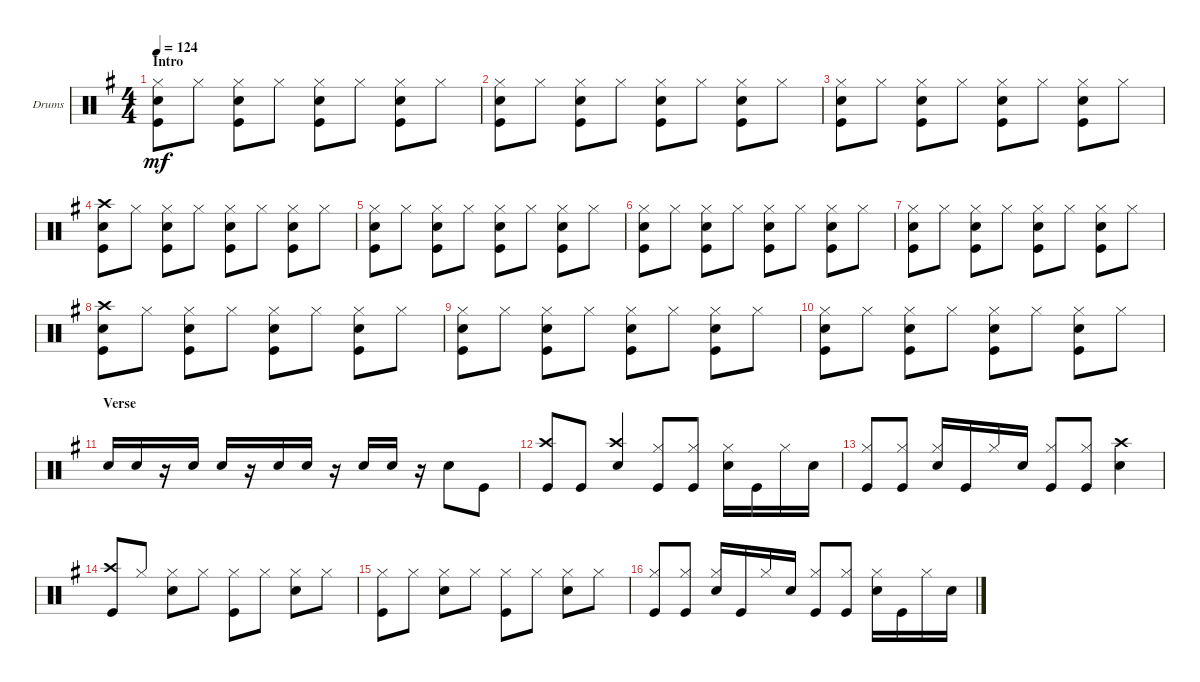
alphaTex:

\defaultSystemsLayout 4
\bracketExtendMode groupsimilarinstruments
\firstSystemTrackNameOrientation horizontal
\otherSystemsTrackNameOrientation horizontal
\track ("PETER CRISS" "Drums") {instrument percussion}
\staff {score}
\articulation defaults
\ts (4 4)
\section ("" "Intro")
\tempo 124
\clef neutral
\scale
0.502183
\ks g
("Kick (hit)" "Snare (hit) 2" "Hi-Hat (closed)").8{dy mf} "Hi-Hat (closed)".8 ("Hi-Hat (closed)" "Snare (hit) 2" "Kick (hit)").8 "Hi-Hat (closed)".8 ("Kick (hit)" "Snare (hit) 2" "Hi-Hat (closed)").8 "Hi-Hat (closed)".8 ("Hi-Hat (closed)" "Snare (hit) 2" "Kick (hit)").8 "Hi-Hat (closed)".8 |
\scale
0.248908 ("Hi-Hat (closed)" "Snare (hit) 2" "Kick (hit)").8 "Hi-Hat (closed)".8 ("Hi-Hat (closed)" "Snare (hit) 2" "Kick (hit)").8 "Hi-Hat (closed)".8 ("Hi-Hat (closed)" "Snare (hit) 2" "Kick (hit)").8 "Hi-Hat (closed)".8 ("Hi-Hat (closed)" "Snare (hit) 2" "Kick (hit)").8 "Hi-Hat (closed)".8 |
\scale
0.248908 ("Hi-Hat (closed)" "Snare (hit) 2" "Kick (hit)").8 "Hi-Hat (closed)".8 ("Hi-Hat (closed)" "Snare (hit) 2" "Kick (hit)").8 "Hi-Hat (closed)".8 ("Hi-Hat (closed)" "Snare (hit) 2" "Kick (hit)").8 "Hi-Hat (closed)".8 ("Hi-Hat (closed)" "Snare (hit) 2" "Kick (hit)").8 "Hi-Hat (closed)".8 |
\scale
0.333333 ("Snare (hit) 2" "Kick (hit)" "Crash high (hit)").8 "Hi-Hat (closed)".8 ("Hi-Hat (closed)" "Snare (hit) 2" "Kick (hit)").8 "Hi-Hat (closed)".8 ("Hi-Hat (closed)" "Snare (hit) 2" "Kick (hit)").8 "Hi-Hat (closed)".8 ("Hi-Hat (closed)" "Snare (hit) 2" "Kick (hit)").8 "Hi-Hat (closed)".8 |
\scale
0.333333 ("Kick (hit)" "Snare (hit) 2" "Hi-Hat (closed)").8 "Hi-Hat (closed)".8 ("Hi-Hat (closed)" "Snare (hit) 2" "Kick (hit)").8 "Hi-Hat (closed)".8 ("Kick (hit)" "Snare (hit) 2" "Hi-Hat (closed)").8 "Hi-Hat (closed)".8 ("Hi-Hat (closed)" "Snare (hit) 2" "Kick (hit)").8 "Hi-Hat (closed)".8 |
\scale
0.333333 ("Hi-Hat (closed)" "Snare (hit) 2" "Kick (hit)").8 "Hi-Hat (closed)".8 ("Hi-Hat (closed)" "Snare (hit) 2" "Kick (hit)").8 "Hi-Hat (closed)".8 ("Hi-Hat (closed)" "Snare (hit) 2" "Kick (hit)").8 "Hi-Hat (closed)".8 ("Hi-Hat (closed)" "Snare (hit) 2" "Kick (hit)").8 "Hi-Hat (closed)".8 |
\scale
0.333333 ("Hi-Hat (closed)" "Snare (hit) 2" "Kick (hit)").8 "Hi-Hat (closed)".8 ("Hi-Hat (closed)" "Snare (hit) 2" "Kick (hit)").8 "Hi-Hat (closed)".8 ("Hi-Hat (closed)" "Snare (hit) 2" "Kick (hit)").8 "Hi-Hat (closed)".8 ("Hi-Hat (closed)" "Snare (hit) 2" "Kick (hit)").8 "Hi-Hat (closed)".8 |
\scale
0.333333 ("Snare (hit) 2" "Kick (hit)" "Crash high (hit)").8 "Hi-Hat (closed)".8 ("Hi-Hat (closed)" "Snare (hit) 2" "Kick (hit)").8 "Hi-Hat (closed)".8 ("Hi-Hat (closed)" "Snare (hit) 2" "Kick (hit)").8 "Hi-Hat (closed)".8 ("Hi-Hat (closed)" "Snare (hit) 2" "Kick (hit)").8 "Hi-Hat (closed)".8 |
\scale
0.333333 ("Kick (hit)" "Snare (hit) 2" "Hi-Hat (closed)").8 "Hi-Hat (closed)".8 ("Hi-Hat (closed)" "Snare (hit) 2" "Kick (hit)").8 "Hi-Hat (closed)".8 ("Kick (hit)" "Snare (hit) 2" "Hi-Hat (closed)").8 "Hi-Hat (closed)".8 ("Hi-Hat (closed)" "Snare (hit) 2" "Kick (hit)").8 "Hi-Hat (closed)".8 |
\scale
0.333333 ("Hi-Hat (closed)" "Snare (hit) 2" "Kick (hit)").8 "Hi-Hat (closed)".8 ("Hi-Hat (closed)" "Snare (hit) 2" "Kick (hit)").8 "Hi-Hat (closed)".8 ("Hi-Hat (closed)" "Snare (hit) 2" "Kick (hit)").8 "Hi-Hat (closed)".8 ("Hi-Hat (closed)" "Snare (hit) 2" "Kick (hit)").8 "Hi-Hat (closed)".8 |
\section ("" "Verse")
\scale
0.333333 "Snare (hit) 2".16{beam invert} "Snare (hit) 2".16 r.16 "Snare (hit) 2".16 "Snare (hit) 2".16{beam invert} r.16 "Snare (hit) 2".16 "Snare (hit) 2".16 r.16 "Snare (hit) 2".16 "Snare (hit) 2".16 r.16 "Snare (hit) 2".8{beam invert} "Kick (hit)".8 |
\scale
0.333333 ("Crash high (hit)" "Kick (hit)").8{beam invert} "Kick (hit)".8 ("Snare (hit) 2" "Crash high (hit)").4 ("Hi-Hat (closed)" "Kick (hit)").8{beam invert} ("Kick (hit)" "Hi-Hat (closed)").8 ("Snare (hit) 2" "Hi-Hat (closed)").16 "Kick (hit)".16 "Hi-Hat (closed)".16 "Snare (hit) 2".16 |
\scale
0.333333 ("Hi-Hat (closed)" "Kick (hit)").8{beam invert} ("Kick (hit)" "Hi-Hat (closed)").8 ("Snare (hit) 2" "Hi-Hat (closed)").16 "Kick (hit)".16 "Hi-Hat (closed)".16 "Snare (hit) 2".16 ("Hi-Hat (closed)" "Kick (hit)").8{beam invert} ("Kick (hit)" "Hi-Hat (closed)").8 ("Snare (hit) 2" "Crash high (hit)").4 |
\scale
0.333333 ("Crash high (hit)" "Kick (hit)").8{beam invert} "Hi-Hat (closed)".8 ("Hi-Hat (closed)" "Snare (hit) 2").8 "Hi-Hat (closed)".8 ("Kick (hit)" "Hi-Hat (closed)").8 "Hi-Hat (closed)".8 ("Hi-Hat (closed)" "Snare (hit) 2").8 "Hi-Hat (closed)".8 |
\scale
0.333333 ("Kick (hit)" "Hi-Hat (closed)").8 "Hi-Hat (closed)".8 ("Hi-Hat (closed)" "Snare (hit) 2").8 "Hi-Hat (closed)".8 ("Kick (hit)" "Hi-Hat (closed)").8 "Hi-Hat (closed)".8 ("Hi-Hat (closed)" "Snare (hit) 2").8 "Hi-Hat (closed)".8 |
\scale
0.333333 ("Hi-Hat (closed)" "Kick (hit)").8{beam invert} ("Kick (hit)" "Hi-Hat (closed)").8 ("Snare (hit) 2" "Hi-Hat (closed)").16 "Kick (hit)".16 "Hi-Hat (closed)".16 "Snare (hit) 2".16 ("Hi-Hat (closed)" "Kick (hit)").8{beam invert} ("Kick (hit)" "Hi-Hat (closed)").8 ("Snare (hit) 2" "Hi-Hat (closed)").16 "Kick (hit)".16 "Hi-Hat (closed)".16 "Snare (hit) 2".16
